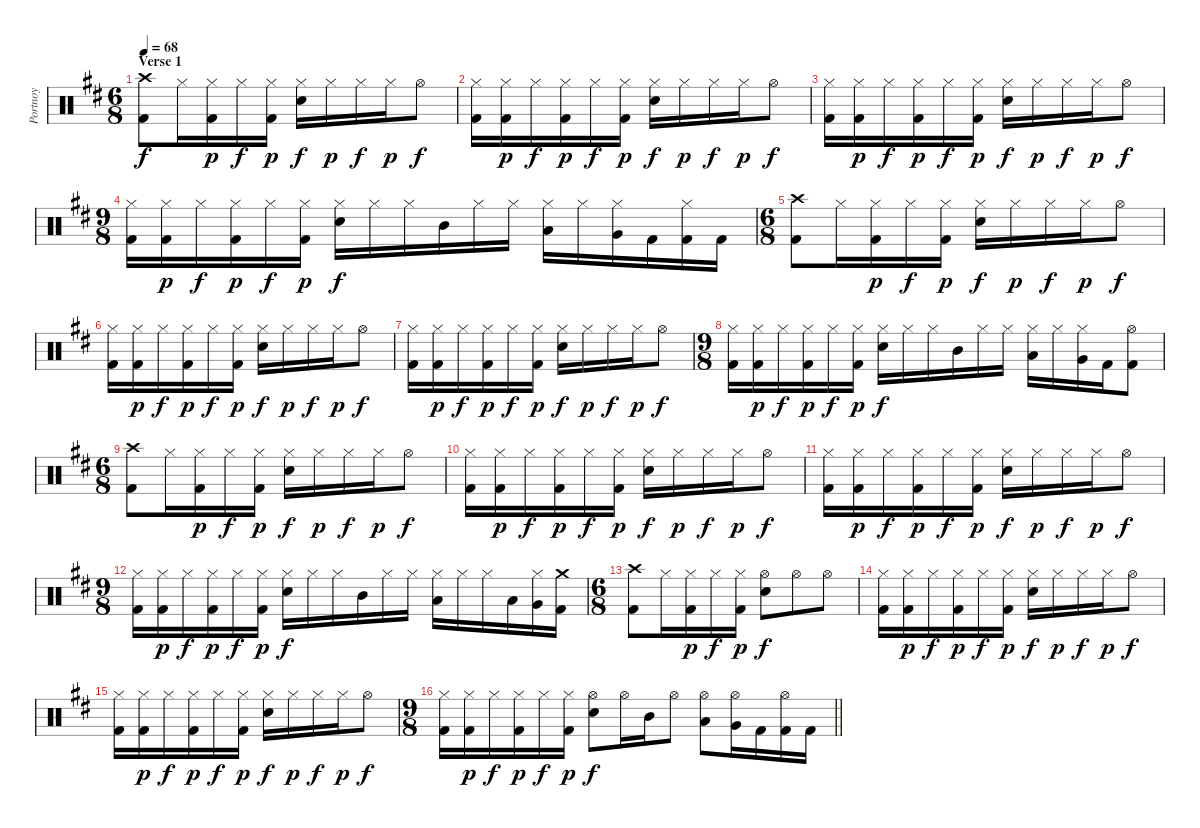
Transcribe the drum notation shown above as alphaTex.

\track ("Portnoy" "Portnoy") {instrument percussion}
\staff {score}
\articulation defaults
\ts (6 8)
\section ("" "Verse 1")
\tempo 68
\clef neutral
\ks d
("Crash high (hit)" "Kick (hit) 2").8{dy f} "Hi-Hat (closed)".16 ("Kick (hit) 2" "Hi-Hat (closed)").16{dy p} "Hi-Hat (closed)".16{dy f} ("Hi-Hat (closed)" "Kick (hit) 2").16{dy p} ("Hi-Hat (closed)" "Snare (hit) 2").16{dy f} "Hi-Hat (closed)".16{dy p} "Hi-Hat (closed)".16{dy f} "Hi-Hat (closed)".16{dy p} "Hi-Hat (open)".8{dy f} |
("Hi-Hat (closed)" "Kick (hit) 2").16 ("Kick (hit) 2" "Hi-Hat (closed)").16{dy p} "Hi-Hat (closed)".16{dy f} ("Kick (hit) 2" "Hi-Hat (closed)").16{dy p} "Hi-Hat (closed)".16{dy f} ("Hi-Hat (closed)" "Kick (hit) 2").16{dy p} ("Hi-Hat (closed)" "Snare (hit) 2").16{dy f} "Hi-Hat (closed)".16{dy p} "Hi-Hat (closed)".16{dy f} "Hi-Hat (closed)".16{dy p} "Hi-Hat (open)".8{dy f} |
("Hi-Hat (closed)" "Kick (hit) 2").16 ("Kick (hit) 2" "Hi-Hat (closed)").16{dy p} "Hi-Hat (closed)".16{dy f} ("Kick (hit) 2" "Hi-Hat (closed)").16{dy p} "Hi-Hat (closed)".16{dy f} ("Hi-Hat (closed)" "Kick (hit) 2").16{dy p} ("Hi-Hat (closed)" "Snare (hit) 2").16{dy f} "Hi-Hat (closed)".16{dy p} "Hi-Hat (closed)".16{dy f} "Hi-Hat (closed)".16{dy p} "Hi-Hat (open)".8{dy f} |
\ts (9 8)
("Hi-Hat (closed)" "Kick (hit) 2").16 ("Kick (hit) 2" "Hi-Hat (closed)").16{dy p} "Hi-Hat (closed)".16{dy f} ("Kick (hit) 2" "Hi-Hat (closed)").16{dy p} "Hi-Hat (closed)".16{dy f} ("Hi-Hat (closed)" "Kick (hit) 2").16{dy p} ("Snare (hit) 2" "Hi-Hat (closed)").16{dy f} "Hi-Hat (closed)".16 "Hi-Hat (closed)".16 "Mid Tom (hit)".16 "Hi-Hat (closed)".16 "Hi-Hat (closed)".16 ("Low Tom (hit)" "Hi-Hat (closed)").16 "Hi-Hat (closed)".16 ("Very Low Tom (hit)" "Hi-Hat (closed)").16 "Kick (hit) 2".16 ("Hi-Hat (closed)" "Kick (hit) 2").16 "Kick (hit) 2".16 |
\ts (6 8)
("Crash high (hit)" "Kick (hit) 2").8 "Hi-Hat (closed)".16 ("Kick (hit) 2" "Hi-Hat (closed)").16{dy p} "Hi-Hat (closed)".16{dy f} ("Hi-Hat (closed)" "Kick (hit) 2").16{dy p} ("Hi-Hat (closed)" "Snare (hit) 2").16{dy f} "Hi-Hat (closed)".16{dy p} "Hi-Hat (closed)".16{dy f} "Hi-Hat (closed)".16{dy p} "Hi-Hat (open)".8{dy f} |
("Hi-Hat (closed)" "Kick (hit) 2").16 ("Kick (hit) 2" "Hi-Hat (closed)").16{dy p} "Hi-Hat (closed)".16{dy f} ("Kick (hit) 2" "Hi-Hat (closed)").16{dy p} "Hi-Hat (closed)".16{dy f} ("Hi-Hat (closed)" "Kick (hit) 2").16{dy p} ("Hi-Hat (closed)" "Snare (hit) 2").16{dy f} "Hi-Hat (closed)".16{dy p} "Hi-Hat (closed)".16{dy f} "Hi-Hat (closed)".16{dy p} "Hi-Hat (open)".8{dy f} |
("Hi-Hat (closed)" "Kick (hit) 2").16 ("Kick (hit) 2" "Hi-Hat (closed)").16{dy p} "Hi-Hat (closed)".16{dy f} ("Kick (hit) 2" "Hi-Hat (closed)").16{dy p} "Hi-Hat (closed)".16{dy f} ("Hi-Hat (closed)" "Kick (hit) 2").16{dy p} ("Hi-Hat (closed)" "Snare (hit) 2").16{dy f} "Hi-Hat (closed)".16{dy p} "Hi-Hat (closed)".16{dy f} "Hi-Hat (closed)".16{dy p} "Hi-Hat (open)".8{dy f} |
\ts (9 8)
("Hi-Hat (closed)" "Kick (hit) 2").16 ("Kick (hit) 2" "Hi-Hat (closed)").16{dy p} "Hi-Hat (closed)".16{dy f} ("Kick (hit) 2" "Hi-Hat (closed)").16{dy p} "Hi-Hat (closed)".16{dy f} ("Hi-Hat (closed)" "Kick (hit) 2").16{dy p} ("Snare (hit) 2" "Hi-Hat (closed)").16{dy f} "Hi-Hat (closed)".16 "Hi-Hat (closed)".16 "Mid Tom (hit)".16 "Hi-Hat (closed)".16 "Hi-Hat (closed)".16 ("Low Tom (hit)" "Hi-Hat (closed)").16 "Hi-Hat (closed)".16 ("Very Low Tom (hit)" "Hi-Hat (closed)").16 "Kick (hit) 2".16 ("Hi-Hat (open)" "Kick (hit) 2").8 |
\ts (6 8)
("Crash high (hit)" "Kick (hit) 2").8 "Hi-Hat (closed)".16 ("Kick (hit) 2" "Hi-Hat (closed)").16{dy p} "Hi-Hat (closed)".16{dy f} ("Hi-Hat (closed)" "Kick (hit) 2").16{dy p} ("Hi-Hat (closed)" "Snare (hit) 2").16{dy f} "Hi-Hat (closed)".16{dy p} "Hi-Hat (closed)".16{dy f} "Hi-Hat (closed)".16{dy p} "Hi-Hat (open)".8{dy f} |
("Hi-Hat (closed)" "Kick (hit) 2").16 ("Kick (hit) 2" "Hi-Hat (closed)").16{dy p} "Hi-Hat (closed)".16{dy f} ("Kick (hit) 2" "Hi-Hat (closed)").16{dy p} "Hi-Hat (closed)".16{dy f} ("Hi-Hat (closed)" "Kick (hit) 2").16{dy p} ("Hi-Hat (closed)" "Snare (hit) 2").16{dy f} "Hi-Hat (closed)".16{dy p} "Hi-Hat (closed)".16{dy f} "Hi-Hat (closed)".16{dy p} "Hi-Hat (open)".8{dy f} |
("Hi-Hat (closed)" "Kick (hit) 2").16 ("Kick (hit) 2" "Hi-Hat (closed)").16{dy p} "Hi-Hat (closed)".16{dy f} ("Kick (hit) 2" "Hi-Hat (closed)").16{dy p} "Hi-Hat (closed)".16{dy f} ("Hi-Hat (closed)" "Kick (hit) 2").16{dy p} ("Hi-Hat (closed)" "Snare (hit) 2").16{dy f} "Hi-Hat (closed)".16{dy p} "Hi-Hat (closed)".16{dy f} "Hi-Hat (closed)".16{dy p} "Hi-Hat (open)".8{dy f} |
\ts (9 8)
("Hi-Hat (closed)" "Kick (hit) 2").16 ("Kick (hit) 2" "Hi-Hat (closed)").16{dy p} "Hi-Hat (closed)".16{dy f} ("Kick (hit) 2" "Hi-Hat (closed)").16{dy p} "Hi-Hat (closed)".16{dy f} ("Hi-Hat (closed)" "Kick (hit) 2").16{dy p} ("Snare (hit) 2" "Hi-Hat (closed)").16{dy f} "Hi-Hat (closed)".16 "Hi-Hat (closed)".16 "Mid Tom (hit)".16 "Hi-Hat (closed)".16 "Hi-Hat (closed)".16 ("Low Tom (hit)" "Hi-Hat (closed)").16 "Hi-Hat (closed)".16 "Hi-Hat (closed)".16 "Low Tom (hit)".16 ("Hi-Hat (closed)" "Very Low Tom (hit)").16 ("Kick (hit) 2" "Crash medium (hit)").16 |
\ts (6 8)
("Crash high (hit)" "Kick (hit) 2").8 "Hi-Hat (closed)".16 ("Kick (hit) 2" "Hi-Hat (closed)").16{dy p} "Hi-Hat (closed)".16{dy f} ("Hi-Hat (closed)" "Kick (hit) 2").16{dy p} ("Hi-Hat (open)" "Snare (hit) 2").8{dy f} "Hi-Hat (open)".8 "Hi-Hat (open)".8 |
("Hi-Hat (closed)" "Kick (hit) 2").16 ("Kick (hit) 2" "Hi-Hat (closed)").16{dy p} "Hi-Hat (closed)".16{dy f} ("Kick (hit) 2" "Hi-Hat (closed)").16{dy p} "Hi-Hat (closed)".16{dy f} ("Hi-Hat (closed)" "Kick (hit) 2").16{dy p} ("Hi-Hat (closed)" "Snare (hit) 2").16{dy f} "Hi-Hat (closed)".16{dy p} "Hi-Hat (closed)".16{dy f} "Hi-Hat (closed)".16{dy p} "Hi-Hat (open)".8{dy f} |
("Hi-Hat (closed)" "Kick (hit) 2").16 ("Kick (hit) 2" "Hi-Hat (closed)").16{dy p} "Hi-Hat (closed)".16{dy f} ("Kick (hit) 2" "Hi-Hat (closed)").16{dy p} "Hi-Hat (closed)".16{dy f} ("Hi-Hat (closed)" "Kick (hit) 2").16{dy p} ("Hi-Hat (closed)" "Snare (hit) 2").16{dy f} "Hi-Hat (closed)".16{dy p} "Hi-Hat (closed)".16{dy f} "Hi-Hat (closed)".16{dy p} "Hi-Hat (open)".8{dy f} |
\ts (9 8)
\barLineRight lightlight
("Hi-Hat (closed)" "Kick (hit) 2").16 ("Kick (hit) 2" "Hi-Hat (closed)").16{dy p} "Hi-Hat (closed)".16{dy f} ("Kick (hit) 2" "Hi-Hat (closed)").16{dy p} "Hi-Hat (closed)".16{dy f} ("Hi-Hat (closed)" "Kick (hit) 2").16{dy p} ("Snare (hit) 2" "Hi-Hat (open)").8{dy f} "Hi-Hat (open)".16 "Mid Tom (hit)".16 "Hi-Hat (open)".8 ("Low Tom (hit)" "Hi-Hat (open)").8 ("Very Low Tom (hit)" "Hi-Hat (open)").16 "Kick (hit) 2".16 ("Hi-Hat (open)" "Kick (hit) 2").16 "Kick (hit) 2".16
